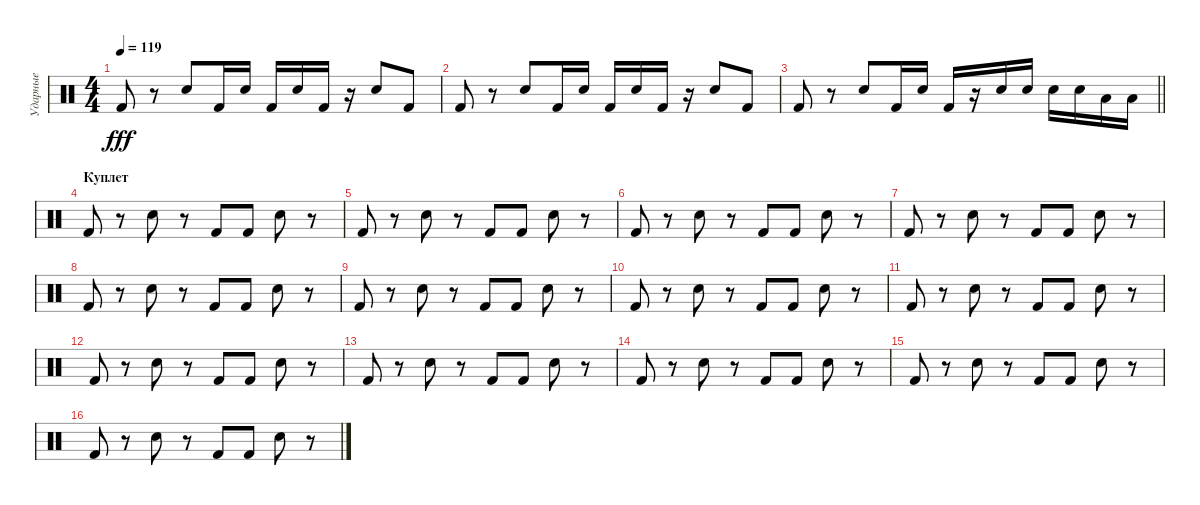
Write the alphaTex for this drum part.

\track ("Ударные" "Ударные") {instrument percussion}
\staff {score}
\articulation defaults
\ts (4 4)
\tempo 119
\clef neutral
\ks c "Kick (hit) 2".8{dy fff}
r.8 "Snare (hit) 2".8 "Kick (hit) 2".16 "Snare (hit) 2".16 "Kick (hit) 2".16 "Snare (hit) 2".16 "Kick (hit) 2".16 r.16 "Snare (hit) 2".8 "Kick (hit) 2".8 |
"Kick (hit) 2".8 r.8 "Snare (hit) 2".8 "Kick (hit) 2".16 "Snare (hit) 2".16 "Kick (hit) 2".16 "Snare (hit) 2".16 "Kick (hit) 2".16 r.16 "Snare (hit) 2".8 "Kick (hit) 2".8 |
\barLineRight lightlight "Kick (hit) 2".8
r.8 "Snare (hit) 2".8 "Kick (hit) 2".16 "Snare (hit) 2".16 "Kick (hit) 2".16 r.16 "Snare (hit) 2".16 "Snare (hit) 2".16 "Snare (hit) 2".16 "Snare (hit) 2".16 "Low Tom (hit)".16 "Low Tom (hit)".16 |
\section ("" "Куплет")
"Kick (hit) 2".8 r.8 "Snare (hit) 2".8 r.8 "Kick (hit) 2".8 "Kick (hit) 2".8 "Snare (hit) 2".8 r.8 |
"Kick (hit) 2".8 r.8 "Snare (hit) 2".8 r.8 "Kick (hit) 2".8 "Kick (hit) 2".8 "Snare (hit) 2".8 r.8 |
"Kick (hit) 2".8 r.8 "Snare (hit) 2".8 r.8 "Kick (hit) 2".8 "Kick (hit) 2".8 "Snare (hit) 2".8 r.8 |
"Kick (hit) 2".8 r.8 "Snare (hit) 2".8 r.8 "Kick (hit) 2".8 "Kick (hit) 2".8 "Snare (hit) 2".8 r.8 |
"Kick (hit) 2".8 r.8 "Snare (hit) 2".8 r.8 "Kick (hit) 2".8 "Kick (hit) 2".8 "Snare (hit) 2".8 r.8 |
"Kick (hit) 2".8 r.8 "Snare (hit) 2".8 r.8 "Kick (hit) 2".8 "Kick (hit) 2".8 "Snare (hit) 2".8 r.8 |
"Kick (hit) 2".8 r.8 "Snare (hit) 2".8 r.8 "Kick (hit) 2".8 "Kick (hit) 2".8 "Snare (hit) 2".8 r.8 |
"Kick (hit) 2".8 r.8 "Snare (hit) 2".8 r.8 "Kick (hit) 2".8 "Kick (hit) 2".8 "Snare (hit) 2".8 r.8 |
"Kick (hit) 2".8 r.8 "Snare (hit) 2".8 r.8 "Kick (hit) 2".8 "Kick (hit) 2".8 "Snare (hit) 2".8 r.8 |
"Kick (hit) 2".8 r.8 "Snare (hit) 2".8 r.8 "Kick (hit) 2".8 "Kick (hit) 2".8 "Snare (hit) 2".8 r.8 |
"Kick (hit) 2".8 r.8 "Snare (hit) 2".8 r.8 "Kick (hit) 2".8 "Kick (hit) 2".8 "Snare (hit) 2".8 r.8 |
"Kick (hit) 2".8 r.8 "Snare (hit) 2".8 r.8 "Kick (hit) 2".8 "Kick (hit) 2".8 "Snare (hit) 2".8 r.8 |
"Kick (hit) 2".8 r.8 "Snare (hit) 2".8 r.8 "Kick (hit) 2".8 "Kick (hit) 2".8 "Snare (hit) 2".8 r.8
